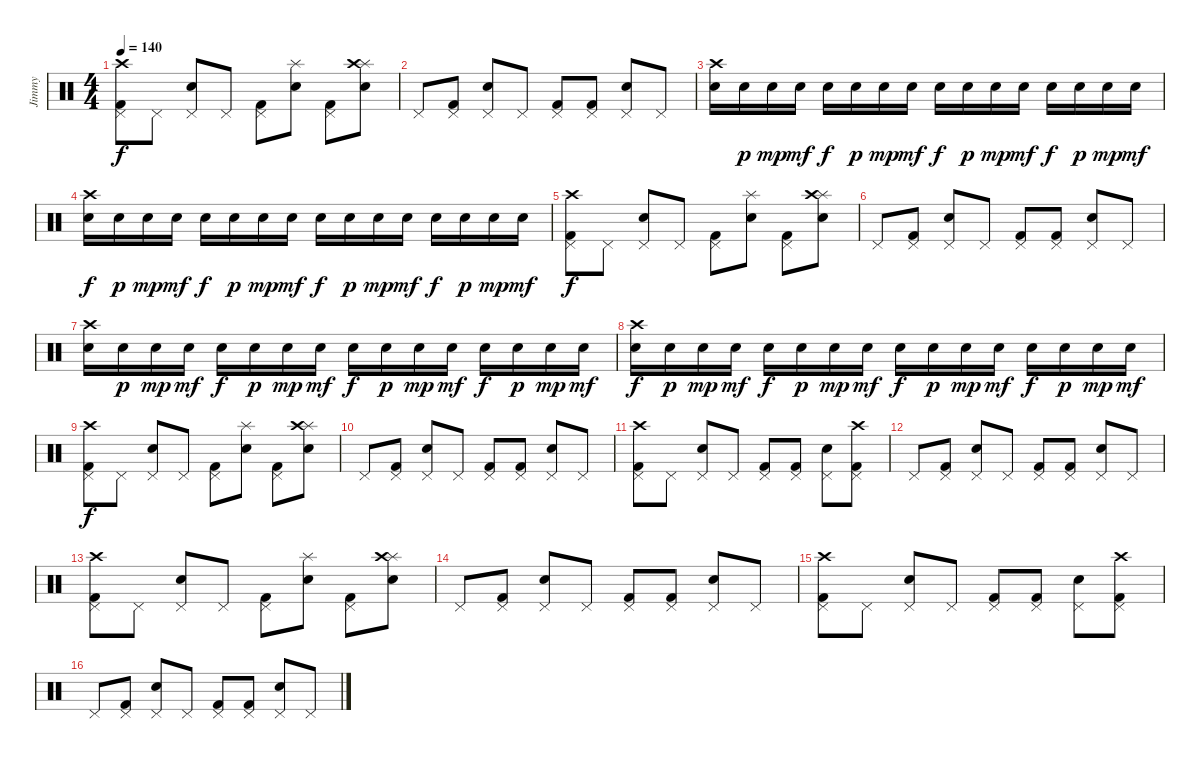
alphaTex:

\track ("Jimmy" "Jimmy") {instrument percussion}
\staff {score}
\articulation defaults
\ts (4 4)
\tempo 140
\clef neutral
\ks c
("Kick (hit) 2" "Pedal Hi-Hat (hit)" "Crash high (hit)").8{dy f} "Pedal Hi-Hat (hit)".8 ("Snare (hit) 2" "Pedal Hi-Hat (hit)").8 "Pedal Hi-Hat (hit)".8 ("Kick (hit) 2" "Pedal Hi-Hat (hit)").8 ("Snare (hit) 2" "Splash (hit)").8 ("Kick (hit) 2" "Pedal Hi-Hat (hit)").8 ("Snare (hit) 2" "Splash (hit)" "Crash high (hit)").8 |
"Pedal Hi-Hat (hit)".8 ("Kick (hit) 2" "Pedal Hi-Hat (hit)").8 ("Snare (hit) 2" "Pedal Hi-Hat (hit)").8 "Pedal Hi-Hat (hit)".8 ("Kick (hit) 2" "Pedal Hi-Hat (hit)").8 ("Kick (hit) 2" "Pedal Hi-Hat (hit)").8 ("Snare (hit) 2" "Pedal Hi-Hat (hit)").8 "Pedal Hi-Hat (hit)".8 |
("Snare (hit) 2" "Crash high (hit)").16 "Snare (hit) 2".16{dy p} "Snare (hit) 2".16{dy mp} "Snare (hit) 2".16{dy mf} "Snare (hit) 2".16{dy f} "Snare (hit) 2".16{dy p} "Snare (hit) 2".16{dy mp} "Snare (hit) 2".16{dy mf} "Snare (hit) 2".16{dy f} "Snare (hit) 2".16{dy p} "Snare (hit) 2".16{dy mp} "Snare (hit) 2".16{dy mf} "Snare (hit) 2".16{dy f} "Snare (hit) 2".16{dy p} "Snare (hit) 2".16{dy mp} "Snare (hit) 2".16{dy mf} |
("Snare (hit) 2" "Crash high (hit)").16{dy f} "Snare (hit) 2".16{dy p} "Snare (hit) 2".16{dy mp} "Snare (hit) 2".16{dy mf} "Snare (hit) 2".16{dy f} "Snare (hit) 2".16{dy p} "Snare (hit) 2".16{dy mp} "Snare (hit) 2".16{dy mf} "Snare (hit) 2".16{dy f} "Snare (hit) 2".16{dy p} "Snare (hit) 2".16{dy mp} "Snare (hit) 2".16{dy mf} "Snare (hit) 2".16{dy f} "Snare (hit) 2".16{dy p} "Snare (hit) 2".16{dy mp} "Snare (hit) 2".16{dy mf} |
("Kick (hit) 2" "Pedal Hi-Hat (hit)" "Crash high (hit)").8{dy f} "Pedal Hi-Hat (hit)".8 ("Snare (hit) 2" "Pedal Hi-Hat (hit)").8 "Pedal Hi-Hat (hit)".8 ("Kick (hit) 2" "Pedal Hi-Hat (hit)").8 ("Snare (hit) 2" "Splash (hit)").8 ("Kick (hit) 2" "Pedal Hi-Hat (hit)").8 ("Snare (hit) 2" "Splash (hit)" "Crash high (hit)").8 |
"Pedal Hi-Hat (hit)".8 ("Kick (hit) 2" "Pedal Hi-Hat (hit)").8 ("Snare (hit) 2" "Pedal Hi-Hat (hit)").8 "Pedal Hi-Hat (hit)".8 ("Kick (hit) 2" "Pedal Hi-Hat (hit)").8 ("Kick (hit) 2" "Pedal Hi-Hat (hit)").8 ("Snare (hit) 2" "Pedal Hi-Hat (hit)").8 "Pedal Hi-Hat (hit)".8 |
("Snare (hit) 2" "Crash high (hit)").16 "Snare (hit) 2".16{dy p} "Snare (hit) 2".16{dy mp} "Snare (hit) 2".16{dy mf} "Snare (hit) 2".16{dy f} "Snare (hit) 2".16{dy p} "Snare (hit) 2".16{dy mp} "Snare (hit) 2".16{dy mf} "Snare (hit) 2".16{dy f} "Snare (hit) 2".16{dy p} "Snare (hit) 2".16{dy mp} "Snare (hit) 2".16{dy mf} "Snare (hit) 2".16{dy f} "Snare (hit) 2".16{dy p} "Snare (hit) 2".16{dy mp} "Snare (hit) 2".16{dy mf} |
("Snare (hit) 2" "Crash high (hit)").16{dy f} "Snare (hit) 2".16{dy p} "Snare (hit) 2".16{dy mp} "Snare (hit) 2".16{dy mf} "Snare (hit) 2".16{dy f} "Snare (hit) 2".16{dy p} "Snare (hit) 2".16{dy mp} "Snare (hit) 2".16{dy mf} "Snare (hit) 2".16{dy f} "Snare (hit) 2".16{dy p} "Snare (hit) 2".16{dy mp} "Snare (hit) 2".16{dy mf} "Snare (hit) 2".16{dy f} "Snare (hit) 2".16{dy p} "Snare (hit) 2".16{dy mp} "Snare (hit) 2".16{dy mf} |
("Kick (hit) 2" "Pedal Hi-Hat (hit)" "Crash high (hit)").8{dy f} "Pedal Hi-Hat (hit)".8 ("Snare (hit) 2" "Pedal Hi-Hat (hit)").8 "Pedal Hi-Hat (hit)".8 ("Kick (hit) 2" "Pedal Hi-Hat (hit)").8 ("Snare (hit) 2" "Splash (hit)").8 ("Kick (hit) 2" "Pedal Hi-Hat (hit)").8 ("Snare (hit) 2" "Splash (hit)" "Crash high (hit)").8 |
"Pedal Hi-Hat (hit)".8 ("Kick (hit) 2" "Pedal Hi-Hat (hit)").8 ("Snare (hit) 2" "Pedal Hi-Hat (hit)").8 "Pedal Hi-Hat (hit)".8 ("Kick (hit) 2" "Pedal Hi-Hat (hit)").8 ("Kick (hit) 2" "Pedal Hi-Hat (hit)").8 ("Snare (hit) 2" "Pedal Hi-Hat (hit)").8 "Pedal Hi-Hat (hit)".8 |
("Kick (hit) 2" "Pedal Hi-Hat (hit)" "Crash high (hit)").8 "Pedal Hi-Hat (hit)".8 ("Snare (hit) 2" "Pedal Hi-Hat (hit)").8 "Pedal Hi-Hat (hit)".8 ("Kick (hit) 2" "Pedal Hi-Hat (hit)").8 ("Kick (hit) 2" "Pedal Hi-Hat (hit)").8 ("Snare (hit) 2" "Pedal Hi-Hat (hit)").8 ("Kick (hit) 2" "Pedal Hi-Hat (hit)" "Crash high (hit)").8 |
"Pedal Hi-Hat (hit)".8 ("Kick (hit) 2" "Pedal Hi-Hat (hit)").8 ("Snare (hit) 2" "Pedal Hi-Hat (hit)").8 "Pedal Hi-Hat (hit)".8 ("Kick (hit) 2" "Pedal Hi-Hat (hit)").8 ("Kick (hit) 2" "Pedal Hi-Hat (hit)").8 ("Snare (hit) 2" "Pedal Hi-Hat (hit)").8 "Pedal Hi-Hat (hit)".8 |
("Kick (hit) 2" "Pedal Hi-Hat (hit)" "Crash high (hit)").8 "Pedal Hi-Hat (hit)".8 ("Snare (hit) 2" "Pedal Hi-Hat (hit)").8 "Pedal Hi-Hat (hit)".8 ("Kick (hit) 2" "Pedal Hi-Hat (hit)").8 ("Snare (hit) 2" "Splash (hit)").8 ("Kick (hit) 2" "Pedal Hi-Hat (hit)").8 ("Snare (hit) 2" "Splash (hit)" "Crash high (hit)").8 |
"Pedal Hi-Hat (hit)".8 ("Kick (hit) 2" "Pedal Hi-Hat (hit)").8 ("Snare (hit) 2" "Pedal Hi-Hat (hit)").8 "Pedal Hi-Hat (hit)".8 ("Kick (hit) 2" "Pedal Hi-Hat (hit)").8 ("Kick (hit) 2" "Pedal Hi-Hat (hit)").8 ("Snare (hit) 2" "Pedal Hi-Hat (hit)").8 "Pedal Hi-Hat (hit)".8 |
("Kick (hit) 2" "Pedal Hi-Hat (hit)" "Crash high (hit)").8 "Pedal Hi-Hat (hit)".8 ("Snare (hit) 2" "Pedal Hi-Hat (hit)").8 "Pedal Hi-Hat (hit)".8 ("Kick (hit) 2" "Pedal Hi-Hat (hit)").8 ("Kick (hit) 2" "Pedal Hi-Hat (hit)").8 ("Snare (hit) 2" "Pedal Hi-Hat (hit)").8 ("Kick (hit) 2" "Pedal Hi-Hat (hit)" "Crash high (hit)").8 |
"Pedal Hi-Hat (hit)".8 ("Kick (hit) 2" "Pedal Hi-Hat (hit)").8 ("Snare (hit) 2" "Pedal Hi-Hat (hit)").8 "Pedal Hi-Hat (hit)".8 ("Kick (hit) 2" "Pedal Hi-Hat (hit)").8 ("Kick (hit) 2" "Pedal Hi-Hat (hit)").8 ("Snare (hit) 2" "Pedal Hi-Hat (hit)").8 "Pedal Hi-Hat (hit)".8
